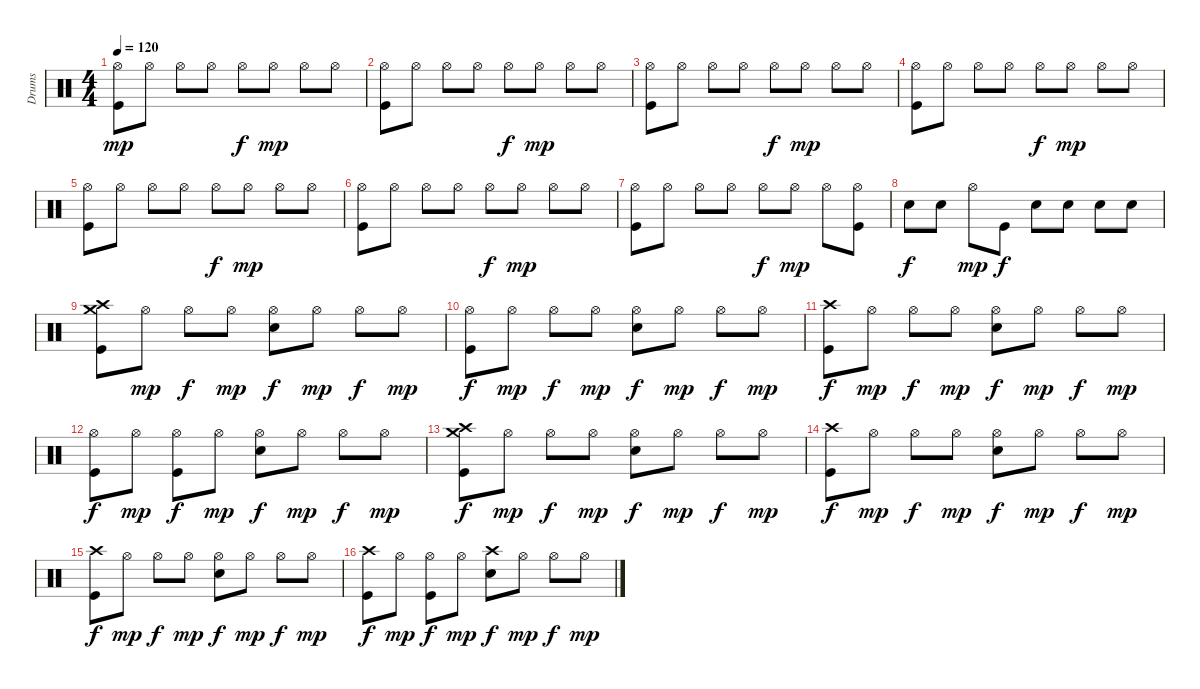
\track ("Drums" "Drums") {instrument percussion}
\staff {score}
\articulation defaults
\ts (4 4)
\tempo 120
\clef neutral
\ks c
("Hi-Hat (open)" "Kick (hit)").8{dy mp} "Hi-Hat (open)".8 "Hi-Hat (open)".8 "Hi-Hat (open)".8 "Hi-Hat (open)".8{dy f} "Hi-Hat (open)".8{dy mp} "Hi-Hat (open)".8 "Hi-Hat (open)".8 |
("Hi-Hat (open)" "Kick (hit)").8 "Hi-Hat (open)".8 "Hi-Hat (open)".8 "Hi-Hat (open)".8 "Hi-Hat (open)".8{dy f} "Hi-Hat (open)".8{dy mp} "Hi-Hat (open)".8 "Hi-Hat (open)".8 |
("Hi-Hat (open)" "Kick (hit)").8 "Hi-Hat (open)".8 "Hi-Hat (open)".8 "Hi-Hat (open)".8 "Hi-Hat (open)".8{dy f} "Hi-Hat (open)".8{dy mp} "Hi-Hat (open)".8 "Hi-Hat (open)".8 |
("Hi-Hat (open)" "Kick (hit)").8 "Hi-Hat (open)".8 "Hi-Hat (open)".8 "Hi-Hat (open)".8 "Hi-Hat (open)".8{dy f} "Hi-Hat (open)".8{dy mp} "Hi-Hat (open)".8 "Hi-Hat (open)".8 |
("Hi-Hat (open)" "Kick (hit)").8 "Hi-Hat (open)".8 "Hi-Hat (open)".8 "Hi-Hat (open)".8 "Hi-Hat (open)".8{dy f} "Hi-Hat (open)".8{dy mp} "Hi-Hat (open)".8 "Hi-Hat (open)".8 |
("Hi-Hat (open)" "Kick (hit)").8 "Hi-Hat (open)".8 "Hi-Hat (open)".8 "Hi-Hat (open)".8 "Hi-Hat (open)".8{dy f} "Hi-Hat (open)".8{dy mp} "Hi-Hat (open)".8 "Hi-Hat (open)".8 |
("Hi-Hat (open)" "Kick (hit)").8 "Hi-Hat (open)".8 "Hi-Hat (open)".8 "Hi-Hat (open)".8 "Hi-Hat (open)".8{dy f} "Hi-Hat (open)".8{dy mp} "Hi-Hat (open)".8 ("Hi-Hat (open)" "Kick (hit)").8 |
"Snare (hit) 2".8{dy f} "Snare (hit) 2".8 "Hi-Hat (open)".8{dy mp} "Kick (hit)".8{dy f} "Snare (hit) 2".8 "Snare (hit) 2".8 "Snare (hit) 2".8 "Snare (hit) 2".8 |
("Kick (hit)" "Crash high (hit)" "Crash medium (hit)").8 "Hi-Hat (open)".8{dy mp} "Hi-Hat (open)".8{dy f} "Hi-Hat (open)".8{dy mp} ("Snare (hit) 2" "Hi-Hat (open)").8{dy f} "Hi-Hat (open)".8{dy mp} "Hi-Hat (open)".8{dy f} "Hi-Hat (open)".8{dy mp} |
("Kick (hit)" "Hi-Hat (open)").8{dy f} "Hi-Hat (open)".8{dy mp} "Hi-Hat (open)".8{dy f} "Hi-Hat (open)".8{dy mp} ("Snare (hit) 2" "Hi-Hat (open)").8{dy f} "Hi-Hat (open)".8{dy mp} "Hi-Hat (open)".8{dy f} "Hi-Hat (open)".8{dy mp} |
("Kick (hit)" "Crash high (hit)").8{dy f} "Hi-Hat (open)".8{dy mp} "Hi-Hat (open)".8{dy f} "Hi-Hat (open)".8{dy mp} ("Snare (hit) 2" "Hi-Hat (open)").8{dy f} "Hi-Hat (open)".8{dy mp} "Hi-Hat (open)".8{dy f} "Hi-Hat (open)".8{dy mp} |
("Kick (hit)" "Hi-Hat (open)").8{dy f} "Hi-Hat (open)".8{dy mp} ("Hi-Hat (open)" "Kick (hit)").8{dy f} "Hi-Hat (open)".8{dy mp} ("Hi-Hat (open)" "Snare (hit) 2").8{dy f} "Hi-Hat (open)".8{dy mp} "Hi-Hat (open)".8{dy f} "Hi-Hat (open)".8{dy mp} |
("Kick (hit)" "Crash high (hit)" "Crash medium (hit)").8{dy f} "Hi-Hat (open)".8{dy mp} "Hi-Hat (open)".8{dy f} "Hi-Hat (open)".8{dy mp} ("Snare (hit) 2" "Hi-Hat (open)").8{dy f} "Hi-Hat (open)".8{dy mp} "Hi-Hat (open)".8{dy f} "Hi-Hat (open)".8{dy mp} |
("Kick (hit)" "Crash high (hit)").8{dy f} "Hi-Hat (open)".8{dy mp} "Hi-Hat (open)".8{dy f} "Hi-Hat (open)".8{dy mp} ("Snare (hit) 2" "Hi-Hat (open)").8{dy f} "Hi-Hat (open)".8{dy mp} "Hi-Hat (open)".8{dy f} "Hi-Hat (open)".8{dy mp} |
("Kick (hit)" "Crash high (hit)").8{dy f} "Hi-Hat (open)".8{dy mp} "Hi-Hat (open)".8{dy f} "Hi-Hat (open)".8{dy mp} ("Snare (hit) 2" "Hi-Hat (open)").8{dy f} "Hi-Hat (open)".8{dy mp} "Hi-Hat (open)".8{dy f} "Hi-Hat (open)".8{dy mp} |
("Kick (hit)" "Crash high (hit)").8{dy f} "Hi-Hat (open)".8{dy mp} ("Hi-Hat (open)" "Kick (hit)").8{dy f} "Hi-Hat (open)".8{dy mp} ("Snare (hit) 2" "Crash high (hit)").8{dy f} "Hi-Hat (open)".8{dy mp} "Hi-Hat (open)".8{dy f} "Hi-Hat (open)".8{dy mp}
